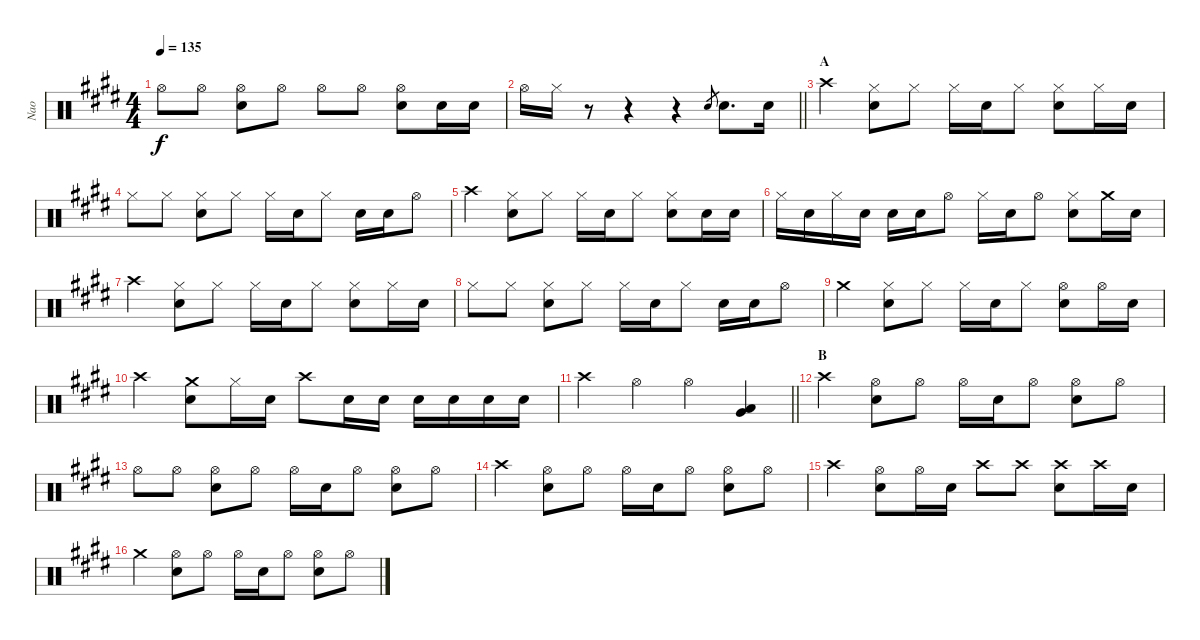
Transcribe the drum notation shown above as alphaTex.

\track ("Nao" "Nao") {instrument percussion}
\staff {score}
\articulation defaults
\ts (4 4)
\tempo 135
\clef neutral
\ks e "Hi-Hat (open)".8{dy f} "Hi-Hat (open)".8
("Hi-Hat (open)" "Snare (hit) 2").8 "Hi-Hat (open)".8 "Hi-Hat (open)".8 "Hi-Hat (open)".8 ("Hi-Hat (open)" "Snare (hit) 2").8 "Snare (hit) 2".16 "Snare (hit) 2".16 |
\barLineRight lightlight "Hi-Hat (open)".16 "Hi-Hat (closed)".16
r.8 r.4 r.4 "Snare (hit) 2".8{gr} "Snare (hit) 2".8{d} "Snare (hit) 2".16 |
\section ("" "A")
"Crash high (hit)".4 ("Hi-Hat (closed)" "Snare (hit) 2").8 "Hi-Hat (closed)".8 "Hi-Hat (closed)".16 "Snare (hit) 2".16 "Hi-Hat (closed)".8 ("Hi-Hat (closed)" "Snare (hit) 2").8 "Hi-Hat (closed)".16 "Snare (hit) 2".16 |
"Hi-Hat (closed)".8 "Hi-Hat (closed)".8 ("Hi-Hat (closed)" "Snare (hit) 2").8 "Hi-Hat (closed)".8 "Hi-Hat (closed)".16 "Snare (hit) 2".16 "Hi-Hat (closed)".8 "Snare (hit) 2".16 "Snare (hit) 2".16 "Hi-Hat (open)".8 |
"Crash high (hit)".4 ("Hi-Hat (closed)" "Snare (hit) 2").8 "Hi-Hat (closed)".8 "Hi-Hat (closed)".16 "Snare (hit) 2".16 "Hi-Hat (closed)".8 ("Hi-Hat (closed)" "Snare (hit) 2").8 "Snare (hit) 2".16 "Snare (hit) 2".16 |
"Hi-Hat (closed)".16 "Snare (hit) 2".16 "Hi-Hat (closed)".16 "Snare (hit) 2".16 "Snare (hit) 2".16 "Snare (hit) 2".16 "Hi-Hat (open)".8 "Hi-Hat (closed)".16 "Snare (hit) 2".16 "Hi-Hat (open)".8 ("Hi-Hat (closed)" "Snare (hit) 2").8 "Crash medium (hit)".16 "Snare (hit) 2".16 |
"Crash high (hit)".4 ("Hi-Hat (closed)" "Snare (hit) 2").8 "Hi-Hat (closed)".8 "Hi-Hat (closed)".16 "Snare (hit) 2".16 "Hi-Hat (closed)".8 ("Hi-Hat (closed)" "Snare (hit) 2").8 "Hi-Hat (closed)".16 "Snare (hit) 2".16 |
"Hi-Hat (closed)".8 "Hi-Hat (closed)".8 ("Hi-Hat (closed)" "Snare (hit) 2").8 "Hi-Hat (closed)".8 "Hi-Hat (closed)".16 "Snare (hit) 2".16 "Hi-Hat (closed)".8 "Snare (hit) 2".16 "Snare (hit) 2".16 "Hi-Hat (open)".8 |
"Crash medium (hit)".4 ("Hi-Hat (closed)" "Snare (hit) 2").8 "Hi-Hat (closed)".8 "Hi-Hat (closed)".16 "Snare (hit) 2".16 "Hi-Hat (closed)".8 ("Hi-Hat (open)" "Snare (hit) 2").8 "Hi-Hat (open)".16 "Snare (hit) 2".16 |
"Crash high (hit)".4 ("Crash medium (hit)" "Snare (hit) 2").8 "Hi-Hat (closed)".16 "Snare (hit) 2".16 "Crash high (hit)".8 "Snare (hit) 2".16 "Snare (hit) 2".16 "Snare (hit) 2".16 "Snare (hit) 2".16 "Snare (hit) 2".16 "Snare (hit) 2".16 |
\barLineRight lightlight "Crash high (hit)".4 "Hi-Hat (open)".4 "Hi-Hat (open)".4
("Low Tom (hit)" "Very Low Tom (hit)").4 |
\section ("" "B")
"Crash high (hit)".4 ("Hi-Hat (open)" "Snare (hit) 2").8 "Hi-Hat (open)".8 "Hi-Hat (open)".16 "Snare (hit) 2".16 "Hi-Hat (open)".8 ("Hi-Hat (open)" "Snare (hit) 2").8 "Hi-Hat (open)".8 |
"Hi-Hat (open)".8 "Hi-Hat (open)".8 ("Hi-Hat (open)" "Snare (hit) 2").8 "Hi-Hat (open)".8 "Hi-Hat (open)".16 "Snare (hit) 2".16 "Hi-Hat (open)".8 ("Hi-Hat (open)" "Snare (hit) 2").8 "Hi-Hat (open)".8 |
"Crash high (hit)".4 ("Hi-Hat (open)" "Snare (hit) 2").8 "Hi-Hat (open)".8 "Hi-Hat (open)".16 "Snare (hit) 2".16 "Hi-Hat (open)".8 ("Hi-Hat (open)" "Snare (hit) 2").8 "Hi-Hat (open)".8 |
"Crash high (hit)".4 ("Hi-Hat (open)" "Snare (hit) 2").8 "Hi-Hat (open)".16 "Snare (hit) 2".16 "Crash high (hit)".8 "Crash high (hit)".8 ("Crash high (hit)" "Snare (hit) 2").8 "Crash high (hit)".16 "Snare (hit) 2".16 |
"Crash medium (hit)".4 ("Hi-Hat (open)" "Snare (hit) 2").8 "Hi-Hat (open)".8 "Hi-Hat (open)".16 "Snare (hit) 2".16 "Hi-Hat (open)".8 ("Hi-Hat (open)" "Snare (hit) 2").8 "Hi-Hat (open)".8
